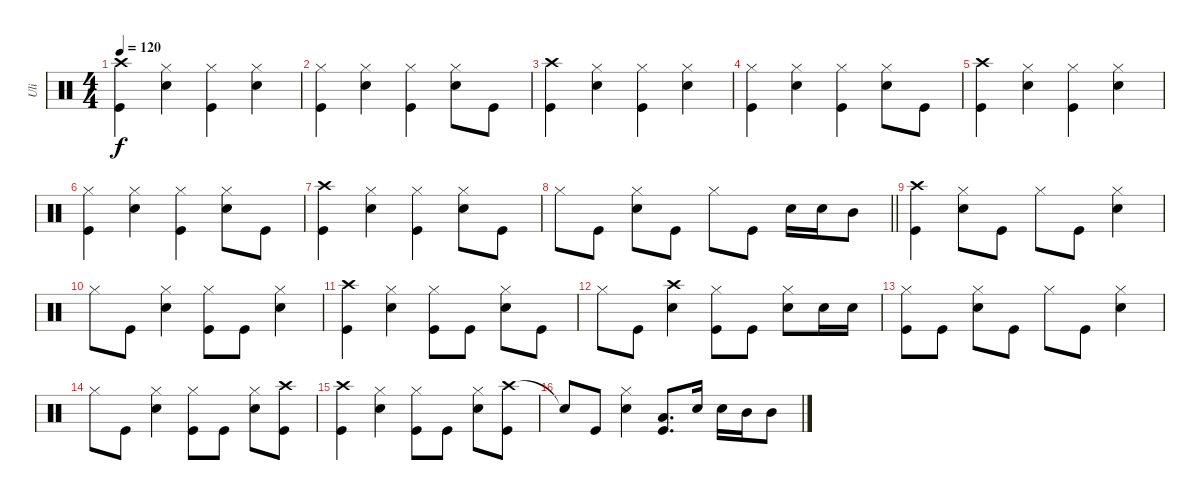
\track ("Uli" "Uli") {instrument percussion}
\staff {score}
\articulation defaults
\ts (4 4)
\tempo 120
\clef neutral
\ks aminor
("Crash high (hit)" "Kick (hit)").4{dy f} ("Hi-Hat (closed)" "Snare (hit) 2").4 ("Hi-Hat (closed)" "Kick (hit)").4 ("Hi-Hat (closed)" "Snare (hit) 2").4 |
("Hi-Hat (closed)" "Kick (hit)").4 ("Hi-Hat (closed)" "Snare (hit) 2").4 ("Hi-Hat (closed)" "Kick (hit)").4 ("Hi-Hat (closed)" "Snare (hit) 2").8 "Kick (hit)".8 |
("Crash high (hit)" "Kick (hit)").4 ("Hi-Hat (closed)" "Snare (hit) 2").4 ("Hi-Hat (closed)" "Kick (hit)").4 ("Hi-Hat (closed)" "Snare (hit) 2").4 |
("Hi-Hat (closed)" "Kick (hit)").4 ("Hi-Hat (closed)" "Snare (hit) 2").4 ("Hi-Hat (closed)" "Kick (hit)").4 ("Hi-Hat (closed)" "Snare (hit) 2").8 "Kick (hit)".8 |
("Crash high (hit)" "Kick (hit)").4 ("Hi-Hat (closed)" "Snare (hit) 2").4 ("Hi-Hat (closed)" "Kick (hit)").4 ("Hi-Hat (closed)" "Snare (hit) 2").4 |
("Hi-Hat (closed)" "Kick (hit)").4 ("Hi-Hat (closed)" "Snare (hit) 2").4 ("Hi-Hat (closed)" "Kick (hit)").4 ("Hi-Hat (closed)" "Snare (hit) 2").8 "Kick (hit)".8 |
("Crash high (hit)" "Kick (hit)").4 ("Hi-Hat (closed)" "Snare (hit) 2").4 ("Hi-Hat (closed)" "Kick (hit)").4 ("Hi-Hat (closed)" "Snare (hit) 2").8 "Kick (hit)".8 |
\barLineRight lightlight "Hi-Hat (closed)".8 "Kick (hit)".8
("Hi-Hat (closed)" "Snare (hit) 2").8 "Kick (hit)".8 "Hi-Hat (closed)".8 "Kick (hit)".8 "Snare (hit) 2".16 "Snare (hit) 2".16 "Mid Tom (hit)".8 |
("Crash high (hit)" "Kick (hit)").4 ("Hi-Hat (closed)" "Snare (hit) 2").8 "Kick (hit)".8 "Hi-Hat (closed)".8 "Kick (hit)".8 ("Hi-Hat (closed)" "Snare (hit) 2").4 |
"Hi-Hat (closed)".8 "Kick (hit)".8 ("Hi-Hat (closed)" "Snare (hit) 2").4 ("Hi-Hat (closed)" "Kick (hit)").8 "Kick (hit)".8 ("Hi-Hat (closed)" "Snare (hit) 2").4 |
("Crash high (hit)" "Kick (hit)").4 ("Hi-Hat (closed)" "Snare (hit) 2").4 ("Hi-Hat (closed)" "Kick (hit)").8 "Kick (hit)".8 ("Hi-Hat (closed)" "Snare (hit) 2").8 "Kick (hit)".8 |
"Hi-Hat (closed)".8 "Kick (hit)".8 ("Crash high (hit)" "Snare (hit) 2").4 ("Hi-Hat (closed)" "Kick (hit)").8 "Kick (hit)".8 ("Hi-Hat (closed)" "Snare (hit) 2").8 "Snare (hit) 2".16 "Snare (hit) 2".16 |
("Hi-Hat (closed)" "Kick (hit)").8 "Kick (hit)".8 ("Hi-Hat (closed)" "Snare (hit) 2").8 "Kick (hit)".8 "Hi-Hat (closed)".8 "Kick (hit)".8 ("Hi-Hat (closed)" "Snare (hit) 2").4 |
"Hi-Hat (closed)".8 "Kick (hit)".8 ("Hi-Hat (closed)" "Snare (hit) 2").4 ("Hi-Hat (closed)" "Kick (hit)").8 "Kick (hit)".8 ("Hi-Hat (closed)" "Snare (hit) 2").8 ("Crash high (hit)" "Kick (hit)").8 |
("Crash high (hit)" "Kick (hit)").4 ("Hi-Hat (closed)" "Snare (hit) 2").4 ("Hi-Hat (closed)" "Kick (hit)").8 "Kick (hit)".8 ("Hi-Hat (closed)" "Snare (hit) 2").8 ("Crash high (hit)" "Kick (hit)").8 |
"Snare (hit)"{t}.8 "Kick (hit)".8 ("Hi-Hat (closed)" "Snare (hit) 2").4 ("Low Tom (hit)" "Kick (hit)").8{d} "Snare (hit) 2".16 "Snare (hit) 2".16 "Mid Tom (hit)".16 "Mid Tom (hit)".8
